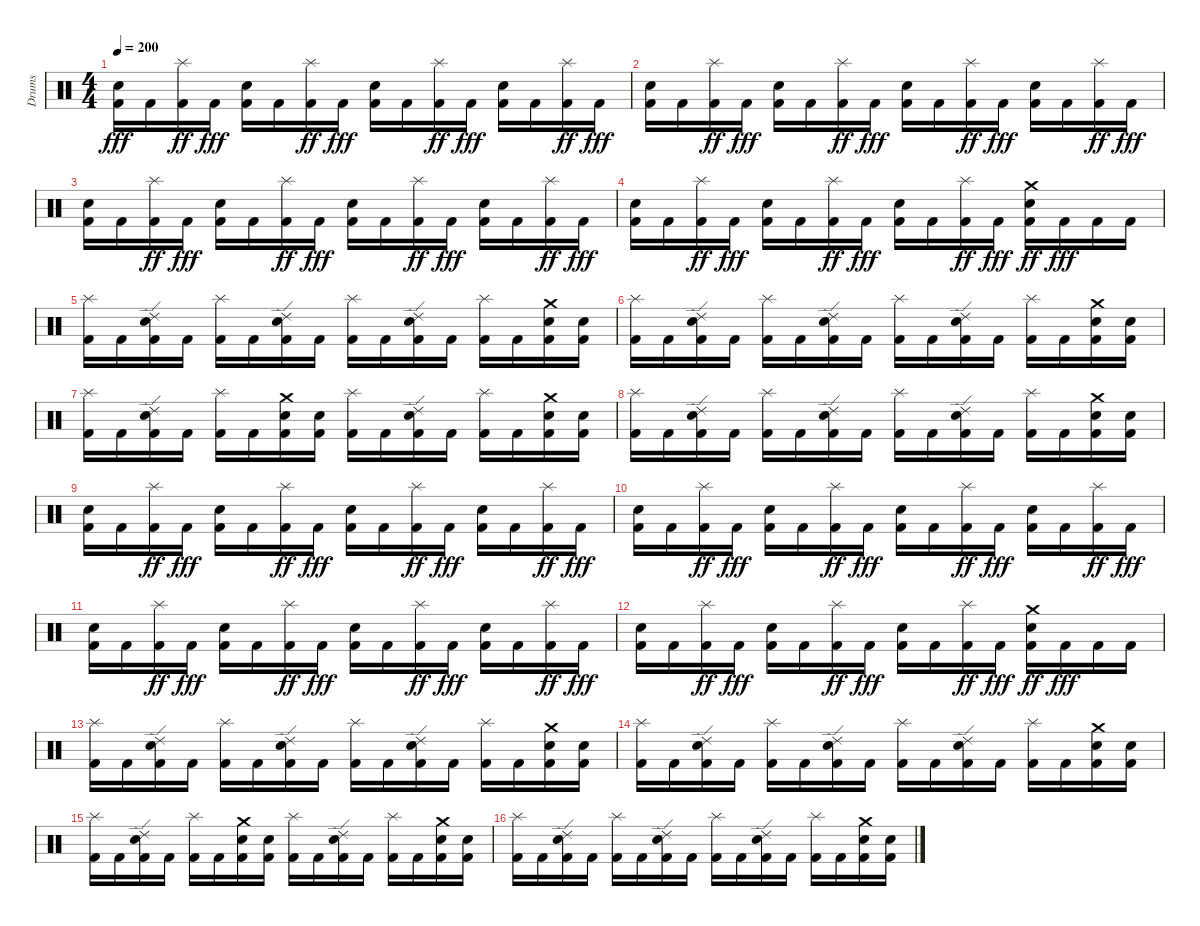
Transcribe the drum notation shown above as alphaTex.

\track ("Drums" "Drums") {instrument percussion}
\staff {score}
\articulation defaults
\ts (4 4)
\tempo 200
\clef neutral
\ks c
("Kick (hit) 2" "Snare (hit) 2").16{dy fff} "Kick (hit) 2".16 ("Kick (hit) 2" "Splash (hit)").16{dy ff} "Kick (hit) 2".16{dy fff} ("Kick (hit) 2" "Snare (hit) 2").16 "Kick (hit) 2".16 ("Kick (hit) 2" "Splash (hit)").16{dy ff} "Kick (hit) 2".16{dy fff} ("Kick (hit) 2" "Snare (hit) 2").16 "Kick (hit) 2".16 ("Kick (hit) 2" "Splash (hit)").16{dy ff} "Kick (hit) 2".16{dy fff} ("Kick (hit) 2" "Snare (hit) 2").16 "Kick (hit) 2".16 ("Kick (hit) 2" "Splash (hit)").16{dy ff} "Kick (hit) 2".16{dy fff} |
("Kick (hit) 2" "Snare (hit) 2").16 "Kick (hit) 2".16 ("Kick (hit) 2" "Splash (hit)").16{dy ff} "Kick (hit) 2".16{dy fff} ("Kick (hit) 2" "Snare (hit) 2").16 "Kick (hit) 2".16 ("Kick (hit) 2" "Splash (hit)").16{dy ff} "Kick (hit) 2".16{dy fff} ("Kick (hit) 2" "Snare (hit) 2").16 "Kick (hit) 2".16 ("Kick (hit) 2" "Splash (hit)").16{dy ff} "Kick (hit) 2".16{dy fff} ("Kick (hit) 2" "Snare (hit) 2").16 "Kick (hit) 2".16 ("Kick (hit) 2" "Splash (hit)").16{dy ff} "Kick (hit) 2".16{dy fff} |
("Kick (hit) 2" "Snare (hit) 2").16 "Kick (hit) 2".16 ("Kick (hit) 2" "Splash (hit)").16{dy ff} "Kick (hit) 2".16{dy fff} ("Kick (hit) 2" "Snare (hit) 2").16 "Kick (hit) 2".16 ("Kick (hit) 2" "Splash (hit)").16{dy ff} "Kick (hit) 2".16{dy fff} ("Kick (hit) 2" "Snare (hit) 2").16 "Kick (hit) 2".16 ("Kick (hit) 2" "Splash (hit)").16{dy ff} "Kick (hit) 2".16{dy fff} ("Kick (hit) 2" "Snare (hit) 2").16 "Kick (hit) 2".16 ("Kick (hit) 2" "Splash (hit)").16{dy ff} "Kick (hit) 2".16{dy fff} |
("Kick (hit) 2" "Snare (hit) 2").16 "Kick (hit) 2".16 ("Kick (hit) 2" "Splash (hit)").16{dy ff} "Kick (hit) 2".16{dy fff} ("Kick (hit) 2" "Snare (hit) 2").16 "Kick (hit) 2".16 ("Kick (hit) 2" "Splash (hit)").16{dy ff} "Kick (hit) 2".16{dy fff} ("Kick (hit) 2" "Snare (hit) 2").16 "Kick (hit) 2".16 ("Kick (hit) 2" "Splash (hit)").16{dy ff} "Kick (hit) 2".16{dy fff} ("Kick (hit) 2" "Electric Snare (hit)" "Crash medium (hit)").16{dy ff} "Kick (hit) 2".16{dy fff} "Kick (hit) 2".16 "Kick (hit) 2".16 |
("Kick (hit) 2" "Splash (hit)").16 "Kick (hit) 2".16 ("Kick (hit) 2" "Electric Snare (hit)" "Ride (edge) 2").16 "Kick (hit) 2".16 ("Kick (hit) 2" "Splash (hit)").16 "Kick (hit) 2".16 ("Kick (hit) 2" "Electric Snare (hit)" "Ride (edge) 2").16 "Kick (hit) 2".16 ("Kick (hit) 2" "Splash (hit)").16 "Kick (hit) 2".16 ("Kick (hit) 2" "Electric Snare (hit)" "Ride (edge) 2").16 "Kick (hit) 2".16 ("Kick (hit) 2" "Splash (hit)").16 "Kick (hit) 2".16 ("Kick (hit) 2" "Electric Snare (hit)" "Crash medium (hit)").16 ("Kick (hit) 2" "Electric Snare (hit)").16 |
("Kick (hit) 2" "Splash (hit)").16 "Kick (hit) 2".16 ("Kick (hit) 2" "Electric Snare (hit)" "Ride (edge) 2").16 "Kick (hit) 2".16 ("Kick (hit) 2" "Splash (hit)").16 "Kick (hit) 2".16 ("Kick (hit) 2" "Electric Snare (hit)" "Ride (edge) 2").16 "Kick (hit) 2".16 ("Kick (hit) 2" "Splash (hit)").16 "Kick (hit) 2".16 ("Kick (hit) 2" "Electric Snare (hit)" "Ride (edge) 2").16 "Kick (hit) 2".16 ("Kick (hit) 2" "Splash (hit)").16 "Kick (hit) 2".16 ("Kick (hit) 2" "Electric Snare (hit)" "Crash medium (hit)").16 ("Kick (hit) 2" "Electric Snare (hit)").16 |
("Kick (hit) 2" "Splash (hit)").16 "Kick (hit) 2".16 ("Kick (hit) 2" "Electric Snare (hit)" "Ride (edge) 2").16 "Kick (hit) 2".16 ("Kick (hit) 2" "Splash (hit)").16 "Kick (hit) 2".16 ("Kick (hit) 2" "Electric Snare (hit)" "Crash medium (hit)").16 ("Kick (hit) 2" "Electric Snare (hit)").16 ("Kick (hit) 2" "Splash (hit)").16 "Kick (hit) 2".16 ("Kick (hit) 2" "Electric Snare (hit)" "Ride (edge) 2").16 "Kick (hit) 2".16 ("Kick (hit) 2" "Splash (hit)").16 "Kick (hit) 2".16 ("Kick (hit) 2" "Electric Snare (hit)" "Crash medium (hit)").16 ("Kick (hit) 2" "Electric Snare (hit)").16 |
("Kick (hit) 2" "Splash (hit)").16 "Kick (hit) 2".16 ("Kick (hit) 2" "Electric Snare (hit)" "Ride (edge) 2").16 "Kick (hit) 2".16 ("Kick (hit) 2" "Splash (hit)").16 "Kick (hit) 2".16 ("Kick (hit) 2" "Electric Snare (hit)" "Ride (edge) 2").16 "Kick (hit) 2".16 ("Kick (hit) 2" "Splash (hit)").16 "Kick (hit) 2".16 ("Kick (hit) 2" "Electric Snare (hit)" "Ride (edge) 2").16 "Kick (hit) 2".16 ("Kick (hit) 2" "Splash (hit)").16 "Kick (hit) 2".16 ("Kick (hit) 2" "Electric Snare (hit)" "Crash medium (hit)").16 ("Kick (hit) 2" "Electric Snare (hit)").16 |
("Kick (hit) 2" "Snare (hit) 2").16 "Kick (hit) 2".16 ("Kick (hit) 2" "Splash (hit)").16{dy ff} "Kick (hit) 2".16{dy fff} ("Kick (hit) 2" "Snare (hit) 2").16 "Kick (hit) 2".16 ("Kick (hit) 2" "Splash (hit)").16{dy ff} "Kick (hit) 2".16{dy fff} ("Kick (hit) 2" "Snare (hit) 2").16 "Kick (hit) 2".16 ("Kick (hit) 2" "Splash (hit)").16{dy ff} "Kick (hit) 2".16{dy fff} ("Kick (hit) 2" "Snare (hit) 2").16 "Kick (hit) 2".16 ("Kick (hit) 2" "Splash (hit)").16{dy ff} "Kick (hit) 2".16{dy fff} |
("Kick (hit) 2" "Snare (hit) 2").16 "Kick (hit) 2".16 ("Kick (hit) 2" "Splash (hit)").16{dy ff} "Kick (hit) 2".16{dy fff} ("Kick (hit) 2" "Snare (hit) 2").16 "Kick (hit) 2".16 ("Kick (hit) 2" "Splash (hit)").16{dy ff} "Kick (hit) 2".16{dy fff} ("Kick (hit) 2" "Snare (hit) 2").16 "Kick (hit) 2".16 ("Kick (hit) 2" "Splash (hit)").16{dy ff} "Kick (hit) 2".16{dy fff} ("Kick (hit) 2" "Snare (hit) 2").16 "Kick (hit) 2".16 ("Kick (hit) 2" "Splash (hit)").16{dy ff} "Kick (hit) 2".16{dy fff} |
("Kick (hit) 2" "Snare (hit) 2").16 "Kick (hit) 2".16 ("Kick (hit) 2" "Splash (hit)").16{dy ff} "Kick (hit) 2".16{dy fff} ("Kick (hit) 2" "Snare (hit) 2").16 "Kick (hit) 2".16 ("Kick (hit) 2" "Splash (hit)").16{dy ff} "Kick (hit) 2".16{dy fff} ("Kick (hit) 2" "Snare (hit) 2").16 "Kick (hit) 2".16 ("Kick (hit) 2" "Splash (hit)").16{dy ff} "Kick (hit) 2".16{dy fff} ("Kick (hit) 2" "Snare (hit) 2").16 "Kick (hit) 2".16 ("Kick (hit) 2" "Splash (hit)").16{dy ff} "Kick (hit) 2".16{dy fff} |
("Kick (hit) 2" "Snare (hit) 2").16 "Kick (hit) 2".16 ("Kick (hit) 2" "Splash (hit)").16{dy ff} "Kick (hit) 2".16{dy fff} ("Kick (hit) 2" "Snare (hit) 2").16 "Kick (hit) 2".16 ("Kick (hit) 2" "Splash (hit)").16{dy ff} "Kick (hit) 2".16{dy fff} ("Kick (hit) 2" "Snare (hit) 2").16 "Kick (hit) 2".16 ("Kick (hit) 2" "Splash (hit)").16{dy ff} "Kick (hit) 2".16{dy fff} ("Kick (hit) 2" "Electric Snare (hit)" "Crash medium (hit)").16{dy ff} "Kick (hit) 2".16{dy fff} "Kick (hit) 2".16 "Kick (hit) 2".16 |
("Kick (hit) 2" "Splash (hit)").16 "Kick (hit) 2".16 ("Kick (hit) 2" "Electric Snare (hit)" "Ride (edge) 2").16 "Kick (hit) 2".16 ("Kick (hit) 2" "Splash (hit)").16 "Kick (hit) 2".16 ("Kick (hit) 2" "Electric Snare (hit)" "Ride (edge) 2").16 "Kick (hit) 2".16 ("Kick (hit) 2" "Splash (hit)").16 "Kick (hit) 2".16 ("Kick (hit) 2" "Electric Snare (hit)" "Ride (edge) 2").16 "Kick (hit) 2".16 ("Kick (hit) 2" "Splash (hit)").16 "Kick (hit) 2".16 ("Kick (hit) 2" "Electric Snare (hit)" "Crash medium (hit)").16 ("Kick (hit) 2" "Electric Snare (hit)").16 |
("Kick (hit) 2" "Splash (hit)").16 "Kick (hit) 2".16 ("Kick (hit) 2" "Electric Snare (hit)" "Ride (edge) 2").16 "Kick (hit) 2".16 ("Kick (hit) 2" "Splash (hit)").16 "Kick (hit) 2".16 ("Kick (hit) 2" "Electric Snare (hit)" "Ride (edge) 2").16 "Kick (hit) 2".16 ("Kick (hit) 2" "Splash (hit)").16 "Kick (hit) 2".16 ("Kick (hit) 2" "Electric Snare (hit)" "Ride (edge) 2").16 "Kick (hit) 2".16 ("Kick (hit) 2" "Splash (hit)").16 "Kick (hit) 2".16 ("Kick (hit) 2" "Electric Snare (hit)" "Crash medium (hit)").16 ("Kick (hit) 2" "Electric Snare (hit)").16 |
("Kick (hit) 2" "Splash (hit)").16 "Kick (hit) 2".16 ("Kick (hit) 2" "Electric Snare (hit)" "Ride (edge) 2").16 "Kick (hit) 2".16 ("Kick (hit) 2" "Splash (hit)").16 "Kick (hit) 2".16 ("Kick (hit) 2" "Electric Snare (hit)" "Crash medium (hit)").16 ("Kick (hit) 2" "Electric Snare (hit)").16 ("Kick (hit) 2" "Splash (hit)").16 "Kick (hit) 2".16 ("Kick (hit) 2" "Electric Snare (hit)" "Ride (edge) 2").16 "Kick (hit) 2".16 ("Kick (hit) 2" "Splash (hit)").16 "Kick (hit) 2".16 ("Kick (hit) 2" "Electric Snare (hit)" "Crash medium (hit)").16 ("Kick (hit) 2" "Electric Snare (hit)").16 |
("Kick (hit) 2" "Splash (hit)").16 "Kick (hit) 2".16 ("Kick (hit) 2" "Electric Snare (hit)" "Ride (edge) 2").16 "Kick (hit) 2".16 ("Kick (hit) 2" "Splash (hit)").16 "Kick (hit) 2".16 ("Kick (hit) 2" "Electric Snare (hit)" "Ride (edge) 2").16 "Kick (hit) 2".16 ("Kick (hit) 2" "Splash (hit)").16 "Kick (hit) 2".16 ("Kick (hit) 2" "Electric Snare (hit)" "Ride (edge) 2").16 "Kick (hit) 2".16 ("Kick (hit) 2" "Splash (hit)").16 "Kick (hit) 2".16 ("Kick (hit) 2" "Electric Snare (hit)" "Crash medium (hit)").16 ("Kick (hit) 2" "Electric Snare (hit)").16
